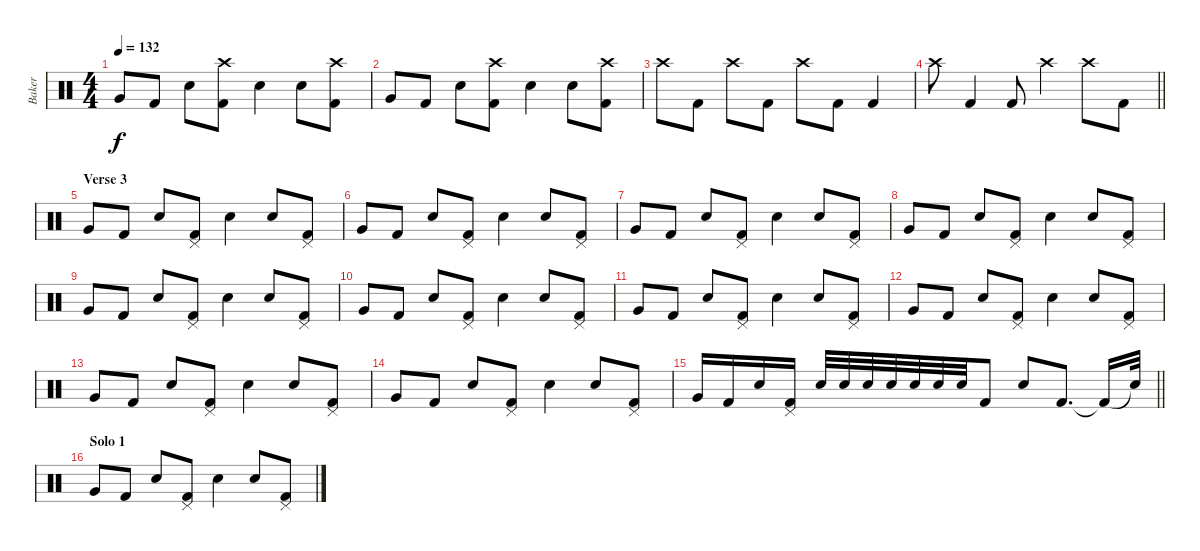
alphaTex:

\track ("Baker" "Baker") {instrument percussion}
\staff {score}
\articulation defaults
\ts (4 4)
\tempo 132
\clef neutral
\ks c "Very Low Tom (hit)".8{dy f} "Kick (hit) 2".8 "Snare (hit) 2".8
("Crash high (hit)" "Kick (hit) 2").8 "Snare (hit) 2".4 "Snare (hit) 2".8 ("Crash high (hit)" "Kick (hit) 2").8 |
"Very Low Tom (hit)".8 "Kick (hit) 2".8 "Snare (hit) 2".8 ("Crash high (hit)" "Kick (hit) 2").8 "Snare (hit) 2".4 "Snare (hit) 2".8 ("Crash high (hit)" "Kick (hit) 2").8 |
"Crash high (hit)".8 "Kick (hit) 2".8 "Crash high (hit)".8 "Kick (hit) 2".8 "Crash high (hit)".8 "Kick (hit) 2".8 "Kick (hit) 2".4 |
\barLineRight lightlight "Crash high (hit)".8 "Kick (hit) 2".4 "Kick (hit) 2".8 "Crash high (hit)".4 "Crash high (hit)".8 "Kick (hit) 2".8
|
\section ("" "Verse 3")
"Very Low Tom (hit)".8 "Kick (hit) 2".8 "Snare (hit) 2".8 ("Pedal Hi-Hat (hit)" "Kick (hit) 2").8 "Snare (hit) 2".4 "Snare (hit) 2".8 ("Pedal Hi-Hat (hit)" "Kick (hit) 2").8 |
"Very Low Tom (hit)".8 "Kick (hit) 2".8 "Snare (hit) 2".8 ("Pedal Hi-Hat (hit)" "Kick (hit) 2").8 "Snare (hit) 2".4 "Snare (hit) 2".8 ("Pedal Hi-Hat (hit)" "Kick (hit) 2").8 |
"Very Low Tom (hit)".8 "Kick (hit) 2".8 "Snare (hit) 2".8 ("Pedal Hi-Hat (hit)" "Kick (hit) 2").8 "Snare (hit) 2".4 "Snare (hit) 2".8 ("Pedal Hi-Hat (hit)" "Kick (hit) 2").8 |
"Very Low Tom (hit)".8 "Kick (hit) 2".8 "Snare (hit) 2".8 ("Pedal Hi-Hat (hit)" "Kick (hit) 2").8 "Snare (hit) 2".4 "Snare (hit) 2".8 ("Pedal Hi-Hat (hit)" "Kick (hit) 2").8 |
"Very Low Tom (hit)".8 "Kick (hit) 2".8 "Snare (hit) 2".8 ("Pedal Hi-Hat (hit)" "Kick (hit) 2").8 "Snare (hit) 2".4 "Snare (hit) 2".8 ("Pedal Hi-Hat (hit)" "Kick (hit) 2").8 |
"Very Low Tom (hit)".8 "Kick (hit) 2".8 "Snare (hit) 2".8 ("Pedal Hi-Hat (hit)" "Kick (hit) 2").8 "Snare (hit) 2".4 "Snare (hit) 2".8 ("Pedal Hi-Hat (hit)" "Kick (hit) 2").8 |
"Very Low Tom (hit)".8 "Kick (hit) 2".8 "Snare (hit) 2".8 ("Pedal Hi-Hat (hit)" "Kick (hit) 2").8 "Snare (hit) 2".4 "Snare (hit) 2".8 ("Pedal Hi-Hat (hit)" "Kick (hit) 2").8 |
"Very Low Tom (hit)".8 "Kick (hit) 2".8 "Snare (hit) 2".8 ("Pedal Hi-Hat (hit)" "Kick (hit) 2").8 "Snare (hit) 2".4 "Snare (hit) 2".8 ("Pedal Hi-Hat (hit)" "Kick (hit) 2").8 |
"Very Low Tom (hit)".8 "Kick (hit) 2".8 "Snare (hit) 2".8 ("Pedal Hi-Hat (hit)" "Kick (hit) 2").8 "Snare (hit) 2".4 "Snare (hit) 2".8 ("Pedal Hi-Hat (hit)" "Kick (hit) 2").8 |
"Very Low Tom (hit)".8 "Kick (hit) 2".8 "Snare (hit) 2".8 ("Pedal Hi-Hat (hit)" "Kick (hit) 2").8 "Snare (hit) 2".4 "Snare (hit) 2".8 ("Pedal Hi-Hat (hit)" "Kick (hit) 2").8 |
\barLineRight lightlight "Very Low Tom (hit)".16 "Kick (hit) 2".16 "Snare (hit) 2".16
("Pedal Hi-Hat (hit)" "Kick (hit) 2").16 "Snare (hit) 2".32 "Snare (hit) 2".32 "Snare (hit) 2".32 "Snare (hit) 2".32 "Snare (hit) 2".32 "Snare (hit) 2".32 "Snare (hit) 2".32 "Kick (hit) 2".8 "Snare (hit) 2".8 "Kick (hit) 2".8{d} "Kick (hit) 2"{t}.16 "Snare (hit)"{t}.32 |
\section ("" "Solo 1")
"Very Low Tom (hit)".8 "Kick (hit) 2".8 "Snare (hit) 2".8 ("Pedal Hi-Hat (hit)" "Kick (hit) 2").8 "Snare (hit) 2".4 "Snare (hit) 2".8 ("Pedal Hi-Hat (hit)" "Kick (hit) 2").8
